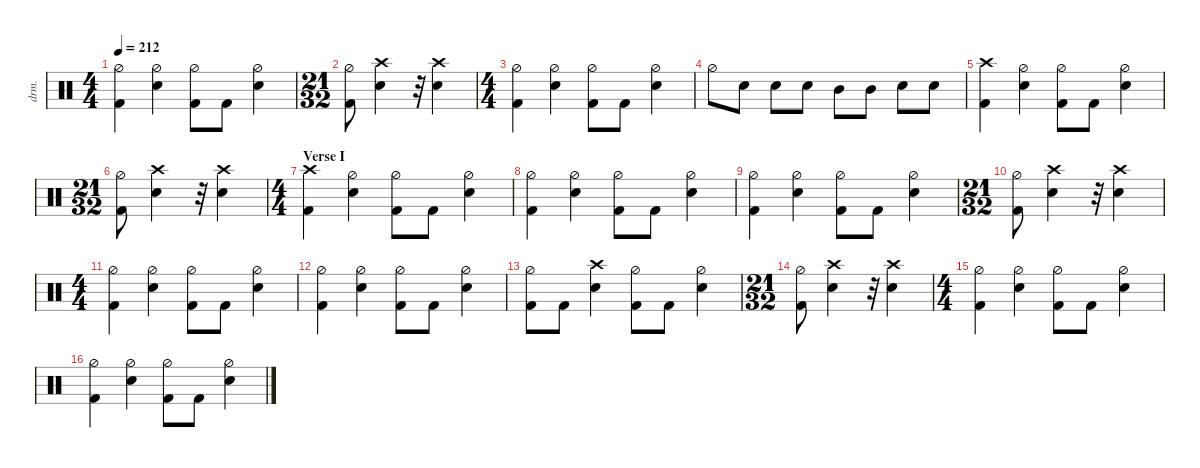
\defaultSystemsLayout 4
\hideDynamics
\bracketExtendMode nobrackets
\track ("Drums" "drm.") {defaultSystemsLayout 4 multiBarRest instrument percussion}
\staff
\articulation defaults
\ts (4 4)
\tempo 212
\clef neutral
\ks c
("Kick (hit) 2" "Hi-Hat (half)").4{dy f} ("Hi-Hat (half)" "Snare (hit) 2").4 ("Hi-Hat (half)" "Kick (hit) 2").8 "Kick (hit) 2".8 ("Hi-Hat (half)" "Snare (hit) 2").4 |
\ts (21 32)
\beaming (8 3 2)
("Kick (hit) 2" "Hi-Hat (half)").8 ("Snare (hit) 2" "Crash high (hit)").4 r.32 ("Snare (hit) 2" "Crash high (hit)").4 |
\ts (4 4)
\beaming (8 2 2 2 2)
("Kick (hit) 2" "Hi-Hat (half)").4 ("Hi-Hat (half)" "Snare (hit) 2").4 ("Hi-Hat (half)" "Kick (hit) 2").8 "Kick (hit) 2".8 ("Hi-Hat (half)" "Snare (hit) 2").4 |
"Hi-Hat (half)".8 "Snare (hit) 2".8 "Snare (hit) 2".8 "Snare (hit) 2".8 "Mid Tom (hit)".8{dy ff} "Mid Tom (hit)".8 "Snare (hit) 2".8{dy f} "Snare (hit) 2".8 |
("Crash high (hit)" "Kick (hit) 2").4 ("Hi-Hat (half)" "Snare (hit) 2").4 ("Hi-Hat (half)" "Kick (hit) 2").8 "Kick (hit) 2".8 ("Hi-Hat (half)" "Snare (hit) 2").4 |
\ts (21 32)
\beaming (8 3 2)
("Kick (hit) 2" "Hi-Hat (half)").8 ("Snare (hit) 2" "Crash high (hit)").4 r.32 ("Snare (hit) 2" "Crash high (hit)").4 |
\ts (4 4)
\beaming (8 2 2 2 2)
\section ("" "Verse I")
("Crash high (hit)" "Kick (hit) 2").4 ("Hi-Hat (half)" "Snare (hit) 2").4 ("Hi-Hat (half)" "Kick (hit) 2").8 "Kick (hit) 2".8 ("Hi-Hat (half)" "Snare (hit) 2").4 |
("Kick (hit) 2" "Hi-Hat (half)").4 ("Hi-Hat (half)" "Snare (hit) 2").4 ("Hi-Hat (half)" "Kick (hit) 2").8 "Kick (hit) 2".8 ("Hi-Hat (half)" "Snare (hit) 2").4 |
("Kick (hit) 2" "Hi-Hat (half)").4 ("Hi-Hat (half)" "Snare (hit) 2").4 ("Hi-Hat (half)" "Kick (hit) 2").8 "Kick (hit) 2".8 ("Hi-Hat (half)" "Snare (hit) 2").4 |
\ts (21 32)
\beaming (8 3 2)
("Kick (hit) 2" "Hi-Hat (half)").8 ("Snare (hit) 2" "Crash high (hit)").4 r.32 ("Snare (hit) 2" "Crash high (hit)").4 |
\ts (4 4)
\beaming (8 2 2 2 2)
("Kick (hit) 2" "Hi-Hat (half)").4 ("Hi-Hat (half)" "Snare (hit) 2").4 ("Hi-Hat (half)" "Kick (hit) 2").8 "Kick (hit) 2".8 ("Hi-Hat (half)" "Snare (hit) 2").4 |
("Kick (hit) 2" "Hi-Hat (half)").4 ("Hi-Hat (half)" "Snare (hit) 2").4 ("Hi-Hat (half)" "Kick (hit) 2").8 "Kick (hit) 2".8 ("Hi-Hat (half)" "Snare (hit) 2").4 |
("Hi-Hat (half)" "Kick (hit) 2").8 "Kick (hit) 2".8 ("Snare (hit) 2" "Crash high (hit)").4 ("Hi-Hat (half)" "Kick (hit) 2").8 "Kick (hit) 2".8 ("Hi-Hat (half)" "Snare (hit) 2").4 |
\ts (21 32)
\beaming (8 3 2)
("Kick (hit) 2" "Hi-Hat (half)").8 ("Snare (hit) 2" "Crash high (hit)").4 r.32 ("Snare (hit) 2" "Crash high (hit)").4 |
\ts (4 4)
\beaming (8 2 2 2 2)
("Kick (hit) 2" "Hi-Hat (half)").4 ("Hi-Hat (half)" "Snare (hit) 2").4 ("Hi-Hat (half)" "Kick (hit) 2").8 "Kick (hit) 2".8 ("Hi-Hat (half)" "Snare (hit) 2").4 |
("Kick (hit) 2" "Hi-Hat (half)").4 ("Hi-Hat (half)" "Snare (hit) 2").4 ("Hi-Hat (half)" "Kick (hit) 2").8 "Kick (hit) 2".8 ("Hi-Hat (half)" "Snare (hit) 2").4
